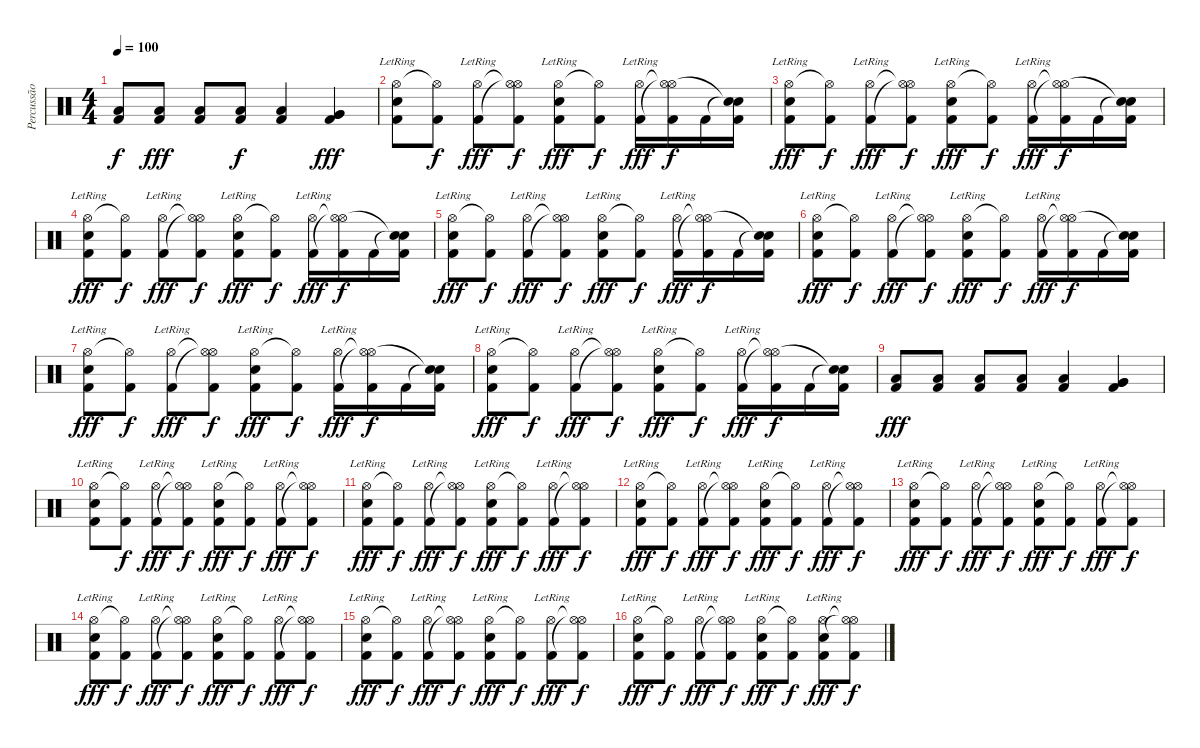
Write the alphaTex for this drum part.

\track ("Percussão" "Percussão") {instrument percussion}
\staff {score}
\articulation defaults
\ts (4 4)
\tempo 100
\clef neutral
\ks c
("Low Tom (hit)" "Kick (hit) 2").8{dy f} ("Low Tom (hit)" "Kick (hit) 2").8{dy fff} ("Low Tom (hit)" "Kick (hit) 2").8 ("Low Tom (hit)" "Kick (hit) 2").8{dy f} ("Low Tom (hit)" "Kick (hit) 2").4 ("Very Low Tom (hit)" "Kick (hit) 2" "Very Low Tom (hit)").4{dy fff} |
("Hi-Hat (open)"{lr} "Electric Snare (hit)" "Kick (hit) 2").8 ("Hi-Hat (open)"{t} "Kick (hit) 2").8{dy f} ("Hi-Hat (open)"{lr} "Kick (hit) 2").8{dy fff} ("Hi-Hat (open)"{t} "Hi-Hat (open)"{t} "Kick (hit) 2").8{dy f} ("Hi-Hat (open)"{lr} "Electric Snare (hit)" "Kick (hit) 2").8{dy fff} ("Hi-Hat (open)"{t} "Kick (hit) 2").8{dy f} ("Hi-Hat (open)"{lr} "Kick (hit) 2").16{dy fff} ("Hi-Hat (open)"{t} "Hi-Hat (open)"{t} "Kick (hit) 2").16{dy f} "Kick (hit) 2".16 ("Snare (hit)"{t} "Snare (hit)"{t} "Kick (hit) 2").16 |
("Hi-Hat (open)"{lr} "Electric Snare (hit)" "Kick (hit) 2").8{dy fff} ("Hi-Hat (open)"{t} "Kick (hit) 2").8{dy f} ("Hi-Hat (open)"{lr} "Kick (hit) 2").8{dy fff} ("Hi-Hat (open)"{t} "Hi-Hat (open)"{t} "Kick (hit) 2").8{dy f} ("Hi-Hat (open)"{lr} "Electric Snare (hit)" "Kick (hit) 2").8{dy fff} ("Hi-Hat (open)"{t} "Kick (hit) 2").8{dy f} ("Hi-Hat (open)"{lr} "Kick (hit) 2").16{dy fff} ("Hi-Hat (open)"{t} "Hi-Hat (open)"{t} "Kick (hit) 2").16{dy f} "Kick (hit) 2".16 ("Snare (hit)"{t} "Snare (hit)"{t} "Kick (hit) 2").16 |
("Hi-Hat (open)"{lr} "Electric Snare (hit)" "Kick (hit) 2").8{dy fff} ("Hi-Hat (open)"{t} "Kick (hit) 2").8{dy f} ("Hi-Hat (open)"{lr} "Kick (hit) 2").8{dy fff} ("Hi-Hat (open)"{t} "Hi-Hat (open)"{t} "Kick (hit) 2").8{dy f} ("Hi-Hat (open)"{lr} "Electric Snare (hit)" "Kick (hit) 2").8{dy fff} ("Hi-Hat (open)"{t} "Kick (hit) 2").8{dy f} ("Hi-Hat (open)"{lr} "Kick (hit) 2").16{dy fff} ("Hi-Hat (open)"{t} "Hi-Hat (open)"{t} "Kick (hit) 2").16{dy f} "Kick (hit) 2".16 ("Snare (hit)"{t} "Snare (hit)"{t} "Kick (hit) 2").16 |
("Hi-Hat (open)"{lr} "Electric Snare (hit)" "Kick (hit) 2").8{dy fff} ("Hi-Hat (open)"{t} "Kick (hit) 2").8{dy f} ("Hi-Hat (open)"{lr} "Kick (hit) 2").8{dy fff} ("Hi-Hat (open)"{t} "Hi-Hat (open)"{t} "Kick (hit) 2").8{dy f} ("Hi-Hat (open)"{lr} "Electric Snare (hit)" "Kick (hit) 2").8{dy fff} ("Hi-Hat (open)"{t} "Kick (hit) 2").8{dy f} ("Hi-Hat (open)"{lr} "Kick (hit) 2").16{dy fff} ("Hi-Hat (open)"{t} "Hi-Hat (open)"{t} "Kick (hit) 2").16{dy f} "Kick (hit) 2".16 ("Snare (hit)"{t} "Snare (hit)"{t} "Kick (hit) 2").16 |
("Hi-Hat (open)"{lr} "Electric Snare (hit)" "Kick (hit) 2").8{dy fff} ("Hi-Hat (open)"{t} "Kick (hit) 2").8{dy f} ("Hi-Hat (open)"{lr} "Kick (hit) 2").8{dy fff} ("Hi-Hat (open)"{t} "Hi-Hat (open)"{t} "Kick (hit) 2").8{dy f} ("Hi-Hat (open)"{lr} "Electric Snare (hit)" "Kick (hit) 2").8{dy fff} ("Hi-Hat (open)"{t} "Kick (hit) 2").8{dy f} ("Hi-Hat (open)"{lr} "Kick (hit) 2").16{dy fff} ("Hi-Hat (open)"{t} "Hi-Hat (open)"{t} "Kick (hit) 2").16{dy f} "Kick (hit) 2".16 ("Snare (hit)"{t} "Snare (hit)"{t} "Kick (hit) 2").16 |
("Hi-Hat (open)"{lr} "Electric Snare (hit)" "Kick (hit) 2").8{dy fff} ("Hi-Hat (open)"{t} "Kick (hit) 2").8{dy f} ("Hi-Hat (open)"{lr} "Kick (hit) 2").8{dy fff} ("Hi-Hat (open)"{t} "Hi-Hat (open)"{t} "Kick (hit) 2").8{dy f} ("Hi-Hat (open)"{lr} "Electric Snare (hit)" "Kick (hit) 2").8{dy fff} ("Hi-Hat (open)"{t} "Kick (hit) 2").8{dy f} ("Hi-Hat (open)"{lr} "Kick (hit) 2").16{dy fff} ("Hi-Hat (open)"{t} "Hi-Hat (open)"{t} "Kick (hit) 2").16{dy f} "Kick (hit) 2".16 ("Snare (hit)"{t} "Snare (hit)"{t} "Kick (hit) 2").16 |
("Hi-Hat (open)"{lr} "Electric Snare (hit)" "Kick (hit) 2").8{dy fff} ("Hi-Hat (open)"{t} "Kick (hit) 2").8{dy f} ("Hi-Hat (open)"{lr} "Kick (hit) 2").8{dy fff} ("Hi-Hat (open)"{t} "Hi-Hat (open)"{t} "Kick (hit) 2").8{dy f} ("Hi-Hat (open)"{lr} "Electric Snare (hit)" "Kick (hit) 2").8{dy fff} ("Hi-Hat (open)"{t} "Kick (hit) 2").8{dy f} ("Hi-Hat (open)"{lr} "Kick (hit) 2").16{dy fff} ("Hi-Hat (open)"{t} "Hi-Hat (open)"{t} "Kick (hit) 2").16{dy f} "Kick (hit) 2".16 ("Snare (hit)"{t} "Snare (hit)"{t} "Kick (hit) 2").16 |
("Low Tom (hit)" "Kick (hit) 2").8{dy fff} ("Low Tom (hit)" "Kick (hit) 2").8 ("Low Tom (hit)" "Kick (hit) 2").8 ("Low Tom (hit)" "Kick (hit) 2").8 ("Low Tom (hit)" "Kick (hit) 2").4 ("Very Low Tom (hit)" "Kick (hit) 2" "Very Low Tom (hit)").4 |
("Hi-Hat (open)"{lr} "Electric Snare (hit)" "Kick (hit) 2").8 ("Hi-Hat (open)"{t} "Kick (hit) 2").8{dy f} ("Hi-Hat (open)"{lr} "Kick (hit) 2").8{dy fff} ("Hi-Hat (open)"{t} "Hi-Hat (open)"{t} "Kick (hit) 2").8{dy f} ("Hi-Hat (open)"{lr} "Electric Snare (hit)" "Kick (hit) 2").8{dy fff} ("Hi-Hat (open)"{t} "Kick (hit) 2").8{dy f} ("Hi-Hat (open)"{lr} "Kick (hit) 2").8{dy fff} ("Hi-Hat (open)"{t} "Hi-Hat (open)"{t} "Kick (hit) 2").8{dy f} |
("Hi-Hat (open)"{lr} "Electric Snare (hit)" "Kick (hit) 2").8{dy fff} ("Hi-Hat (open)"{t} "Kick (hit) 2").8{dy f} ("Hi-Hat (open)"{lr} "Kick (hit) 2").8{dy fff} ("Hi-Hat (open)"{t} "Hi-Hat (open)"{t} "Kick (hit) 2").8{dy f} ("Hi-Hat (open)"{lr} "Electric Snare (hit)" "Kick (hit) 2").8{dy fff} ("Hi-Hat (open)"{t} "Kick (hit) 2").8{dy f} ("Hi-Hat (open)"{lr} "Kick (hit) 2").8{dy fff} ("Hi-Hat (open)"{t} "Hi-Hat (open)"{t} "Kick (hit) 2").8{dy f} |
("Hi-Hat (open)"{lr} "Electric Snare (hit)" "Kick (hit) 2").8{dy fff} ("Hi-Hat (open)"{t} "Kick (hit) 2").8{dy f} ("Hi-Hat (open)"{lr} "Kick (hit) 2").8{dy fff} ("Hi-Hat (open)"{t} "Hi-Hat (open)"{t} "Kick (hit) 2").8{dy f} ("Hi-Hat (open)"{lr} "Electric Snare (hit)" "Kick (hit) 2").8{dy fff} ("Hi-Hat (open)"{t} "Kick (hit) 2").8{dy f} ("Hi-Hat (open)"{lr} "Kick (hit) 2").8{dy fff} ("Hi-Hat (open)"{t} "Hi-Hat (open)"{t} "Kick (hit) 2").8{dy f} |
("Hi-Hat (open)"{lr} "Electric Snare (hit)" "Kick (hit) 2").8{dy fff} ("Hi-Hat (open)"{t} "Kick (hit) 2").8{dy f} ("Hi-Hat (open)"{lr} "Kick (hit) 2").8{dy fff} ("Hi-Hat (open)"{t} "Hi-Hat (open)"{t} "Kick (hit) 2").8{dy f} ("Hi-Hat (open)"{lr} "Electric Snare (hit)" "Kick (hit) 2").8{dy fff} ("Hi-Hat (open)"{t} "Kick (hit) 2").8{dy f} ("Hi-Hat (open)"{lr} "Kick (hit) 2").8{dy fff} ("Hi-Hat (open)"{t} "Hi-Hat (open)"{t} "Kick (hit) 2").8{dy f} |
("Hi-Hat (open)"{lr} "Electric Snare (hit)" "Kick (hit) 2").8{dy fff} ("Hi-Hat (open)"{t} "Kick (hit) 2").8{dy f} ("Hi-Hat (open)"{lr} "Kick (hit) 2").8{dy fff} ("Hi-Hat (open)"{t} "Hi-Hat (open)"{t} "Kick (hit) 2").8{dy f} ("Hi-Hat (open)"{lr} "Electric Snare (hit)" "Kick (hit) 2").8{dy fff} ("Hi-Hat (open)"{t} "Kick (hit) 2").8{dy f} ("Hi-Hat (open)"{lr} "Kick (hit) 2").8{dy fff} ("Hi-Hat (open)"{t} "Hi-Hat (open)"{t} "Kick (hit) 2").8{dy f} |
("Hi-Hat (open)"{lr} "Electric Snare (hit)" "Kick (hit) 2").8{dy fff} ("Hi-Hat (open)"{t} "Kick (hit) 2").8{dy f} ("Hi-Hat (open)"{lr} "Kick (hit) 2").8{dy fff} ("Hi-Hat (open)"{t} "Hi-Hat (open)"{t} "Kick (hit) 2").8{dy f} ("Hi-Hat (open)"{lr} "Electric Snare (hit)" "Kick (hit) 2").8{dy fff} ("Hi-Hat (open)"{t} "Kick (hit) 2").8{dy f} ("Hi-Hat (open)"{lr} "Kick (hit) 2").8{dy fff} ("Hi-Hat (open)"{t} "Hi-Hat (open)"{t} "Kick (hit) 2").8{dy f} |
("Hi-Hat (open)"{lr} "Electric Snare (hit)" "Kick (hit) 2").8{dy fff} ("Hi-Hat (open)"{t} "Kick (hit) 2").8{dy f} ("Hi-Hat (open)"{lr} "Kick (hit) 2").8{dy fff} ("Hi-Hat (open)"{t} "Hi-Hat (open)"{t} "Kick (hit) 2").8{dy f} ("Hi-Hat (open)"{lr} "Electric Snare (hit)" "Kick (hit) 2").8{dy fff} ("Hi-Hat (open)"{t} "Kick (hit) 2").8{dy f} ("Hi-Hat (open)"{lr} "Electric Snare (hit)" "Kick (hit) 2").8{dy fff} ("Hi-Hat (open)"{t} "Hi-Hat (open)"{t} "Kick (hit) 2").8{dy f}
